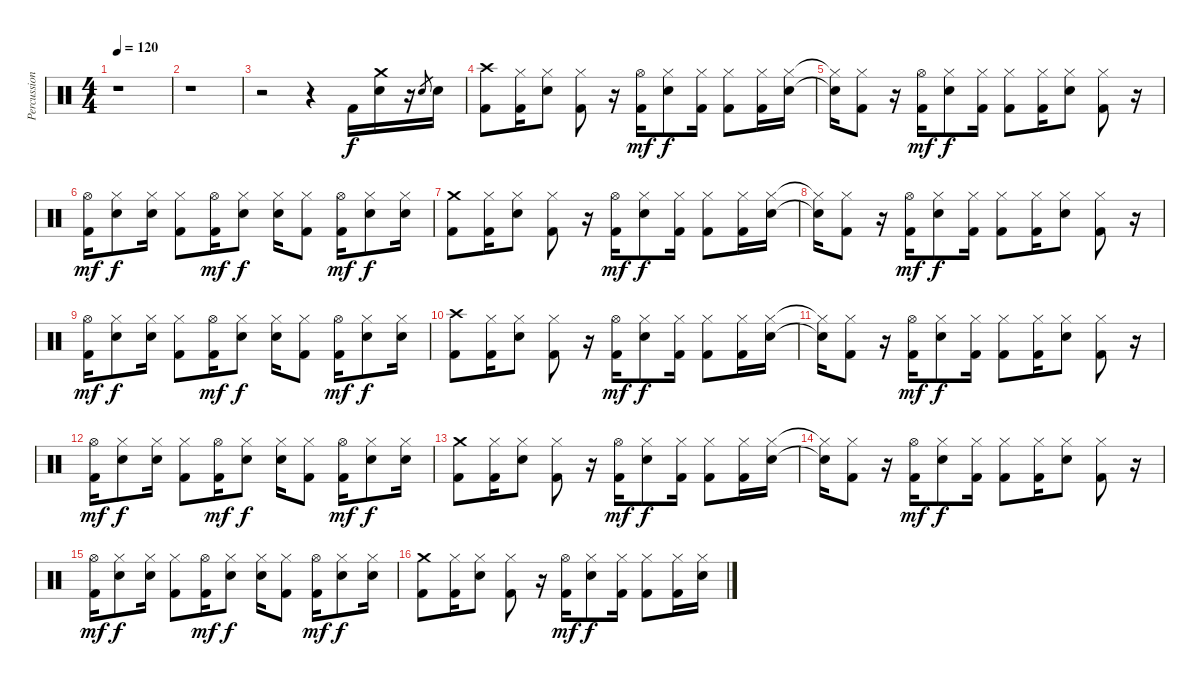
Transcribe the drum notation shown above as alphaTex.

\track ("Percussions" "Percussion") {instrument percussion}
\staff {score}
\articulation defaults
\ts (4 4)
\tempo 120
\clef neutral
\ks c
r.1{dy f} |
r.1 |
r.2 r.4 "Kick (hit) 2".16 ("Crash medium (hit)" "Electric Snare (hit)").16 r.16 "Electric Snare (hit)".8{gr} "Electric Snare (hit)".16 |
("Crash high (hit)" "Kick (hit) 2").8 ("Hi-Hat (closed)" "Kick (hit) 2").16 ("Hi-Hat (closed)" "Electric Snare (hit)").8 ("Hi-Hat (closed)" "Kick (hit) 2").8 r.16 ("Hi-Hat (open)" "Kick (hit) 2").16{dy mf} ("Hi-Hat (closed)" "Electric Snare (hit)").8{dy f} ("Hi-Hat (closed)" "Kick (hit) 2").16 ("Hi-Hat (closed)" "Kick (hit) 2").8 ("Hi-Hat (closed)" "Kick (hit) 2").16 ("Hi-Hat (closed)" "Electric Snare (hit)").16 |
("Hi-Hat (closed)"{t} "Electric Snare (hit)"{t}).16 ("Hi-Hat (closed)" "Kick (hit) 2").8 r.16 ("Hi-Hat (open)" "Kick (hit) 2").16{dy mf} ("Hi-Hat (closed)" "Electric Snare (hit)").8{dy f} ("Hi-Hat (closed)" "Kick (hit) 2").16 ("Hi-Hat (closed)" "Kick (hit) 2").8 ("Hi-Hat (closed)" "Kick (hit) 2").16 ("Hi-Hat (closed)" "Electric Snare (hit)").8 ("Hi-Hat (closed)" "Kick (hit) 2").8 r.16 |
("Hi-Hat (open)" "Kick (hit) 2").16{dy mf} ("Hi-Hat (closed)" "Electric Snare (hit)").8{dy f} ("Hi-Hat (closed)" "Electric Snare (hit)").16 ("Hi-Hat (closed)" "Kick (hit) 2").8 ("Hi-Hat (open)" "Kick (hit) 2").16{dy mf} ("Hi-Hat (closed)" "Electric Snare (hit)").8{dy f} ("Hi-Hat (closed)" "Electric Snare (hit)").16 ("Hi-Hat (closed)" "Kick (hit) 2").8 ("Hi-Hat (open)" "Kick (hit) 2").16{dy mf} ("Hi-Hat (closed)" "Electric Snare (hit)").8{dy f} ("Hi-Hat (closed)" "Electric Snare (hit)").16 |
("Crash medium (hit)" "Kick (hit) 2").8 ("Hi-Hat (closed)" "Kick (hit) 2").16 ("Hi-Hat (closed)" "Electric Snare (hit)").8 ("Hi-Hat (closed)" "Kick (hit) 2").8 r.16 ("Hi-Hat (open)" "Kick (hit) 2").16{dy mf} ("Hi-Hat (closed)" "Electric Snare (hit)").8{dy f} ("Hi-Hat (closed)" "Kick (hit) 2").16 ("Hi-Hat (closed)" "Kick (hit) 2").8 ("Hi-Hat (closed)" "Kick (hit) 2").16 ("Hi-Hat (closed)" "Electric Snare (hit)").16 |
("Hi-Hat (closed)"{t} "Electric Snare (hit)"{t}).16 ("Hi-Hat (closed)" "Kick (hit) 2").8 r.16 ("Hi-Hat (open)" "Kick (hit) 2").16{dy mf} ("Hi-Hat (closed)" "Electric Snare (hit)").8{dy f} ("Hi-Hat (closed)" "Kick (hit) 2").16 ("Hi-Hat (closed)" "Kick (hit) 2").8 ("Hi-Hat (closed)" "Kick (hit) 2").16 ("Hi-Hat (closed)" "Electric Snare (hit)").8 ("Hi-Hat (closed)" "Kick (hit) 2").8 r.16 |
("Hi-Hat (open)" "Kick (hit) 2").16{dy mf} ("Hi-Hat (closed)" "Electric Snare (hit)").8{dy f} ("Hi-Hat (closed)" "Electric Snare (hit)").16 ("Hi-Hat (closed)" "Kick (hit) 2").8 ("Hi-Hat (open)" "Kick (hit) 2").16{dy mf} ("Hi-Hat (closed)" "Electric Snare (hit)").8{dy f} ("Hi-Hat (closed)" "Electric Snare (hit)").16 ("Hi-Hat (closed)" "Kick (hit) 2").8 ("Hi-Hat (open)" "Kick (hit) 2").16{dy mf} ("Hi-Hat (closed)" "Electric Snare (hit)").8{dy f} ("Hi-Hat (closed)" "Electric Snare (hit)").16 |
("Crash high (hit)" "Kick (hit) 2").8 ("Hi-Hat (closed)" "Kick (hit) 2").16 ("Hi-Hat (closed)" "Electric Snare (hit)").8 ("Hi-Hat (closed)" "Kick (hit) 2").8 r.16 ("Hi-Hat (open)" "Kick (hit) 2").16{dy mf} ("Hi-Hat (closed)" "Electric Snare (hit)").8{dy f} ("Hi-Hat (closed)" "Kick (hit) 2").16 ("Hi-Hat (closed)" "Kick (hit) 2").8 ("Hi-Hat (closed)" "Kick (hit) 2").16 ("Hi-Hat (closed)" "Electric Snare (hit)").16 |
("Hi-Hat (closed)"{t} "Electric Snare (hit)"{t}).16 ("Hi-Hat (closed)" "Kick (hit) 2").8 r.16 ("Hi-Hat (open)" "Kick (hit) 2").16{dy mf} ("Hi-Hat (closed)" "Electric Snare (hit)").8{dy f} ("Hi-Hat (closed)" "Kick (hit) 2").16 ("Hi-Hat (closed)" "Kick (hit) 2").8 ("Hi-Hat (closed)" "Kick (hit) 2").16 ("Hi-Hat (closed)" "Electric Snare (hit)").8 ("Hi-Hat (closed)" "Kick (hit) 2").8 r.16 |
("Hi-Hat (open)" "Kick (hit) 2").16{dy mf} ("Hi-Hat (closed)" "Electric Snare (hit)").8{dy f} ("Hi-Hat (closed)" "Electric Snare (hit)").16 ("Hi-Hat (closed)" "Kick (hit) 2").8 ("Hi-Hat (open)" "Kick (hit) 2").16{dy mf} ("Hi-Hat (closed)" "Electric Snare (hit)").8{dy f} ("Hi-Hat (closed)" "Electric Snare (hit)").16 ("Hi-Hat (closed)" "Kick (hit) 2").8 ("Hi-Hat (open)" "Kick (hit) 2").16{dy mf} ("Hi-Hat (closed)" "Electric Snare (hit)").8{dy f} ("Hi-Hat (closed)" "Electric Snare (hit)").16 |
("Crash medium (hit)" "Kick (hit) 2").8 ("Hi-Hat (closed)" "Kick (hit) 2").16 ("Hi-Hat (closed)" "Electric Snare (hit)").8 ("Hi-Hat (closed)" "Kick (hit) 2").8 r.16 ("Hi-Hat (open)" "Kick (hit) 2").16{dy mf} ("Hi-Hat (closed)" "Electric Snare (hit)").8{dy f} ("Hi-Hat (closed)" "Kick (hit) 2").16 ("Hi-Hat (closed)" "Kick (hit) 2").8 ("Hi-Hat (closed)" "Kick (hit) 2").16 ("Hi-Hat (closed)" "Electric Snare (hit)").16 |
("Hi-Hat (closed)"{t} "Electric Snare (hit)"{t}).16 ("Hi-Hat (closed)" "Kick (hit) 2").8 r.16 ("Hi-Hat (open)" "Kick (hit) 2").16{dy mf} ("Hi-Hat (closed)" "Electric Snare (hit)").8{dy f} ("Hi-Hat (closed)" "Kick (hit) 2").16 ("Hi-Hat (closed)" "Kick (hit) 2").8 ("Hi-Hat (closed)" "Kick (hit) 2").16 ("Hi-Hat (closed)" "Electric Snare (hit)").8 ("Hi-Hat (closed)" "Kick (hit) 2").8 r.16 |
("Hi-Hat (open)" "Kick (hit) 2").16{dy mf} ("Hi-Hat (closed)" "Electric Snare (hit)").8{dy f} ("Hi-Hat (closed)" "Electric Snare (hit)").16 ("Hi-Hat (closed)" "Kick (hit) 2").8 ("Hi-Hat (open)" "Kick (hit) 2").16{dy mf} ("Hi-Hat (closed)" "Electric Snare (hit)").8{dy f} ("Hi-Hat (closed)" "Electric Snare (hit)").16 ("Hi-Hat (closed)" "Kick (hit) 2").8 ("Hi-Hat (open)" "Kick (hit) 2").16{dy mf} ("Hi-Hat (closed)" "Electric Snare (hit)").8{dy f} ("Hi-Hat (closed)" "Electric Snare (hit)").16 |
("Crash medium (hit)" "Kick (hit) 2").8 ("Hi-Hat (closed)" "Kick (hit) 2").16 ("Hi-Hat (closed)" "Electric Snare (hit)").8 ("Hi-Hat (closed)" "Kick (hit) 2").8 r.16 ("Hi-Hat (open)" "Kick (hit) 2").16{dy mf} ("Hi-Hat (closed)" "Electric Snare (hit)").8{dy f} ("Hi-Hat (closed)" "Kick (hit) 2").16 ("Hi-Hat (closed)" "Kick (hit) 2").8 ("Hi-Hat (closed)" "Kick (hit) 2").16 ("Hi-Hat (closed)" "Electric Snare (hit)").16
